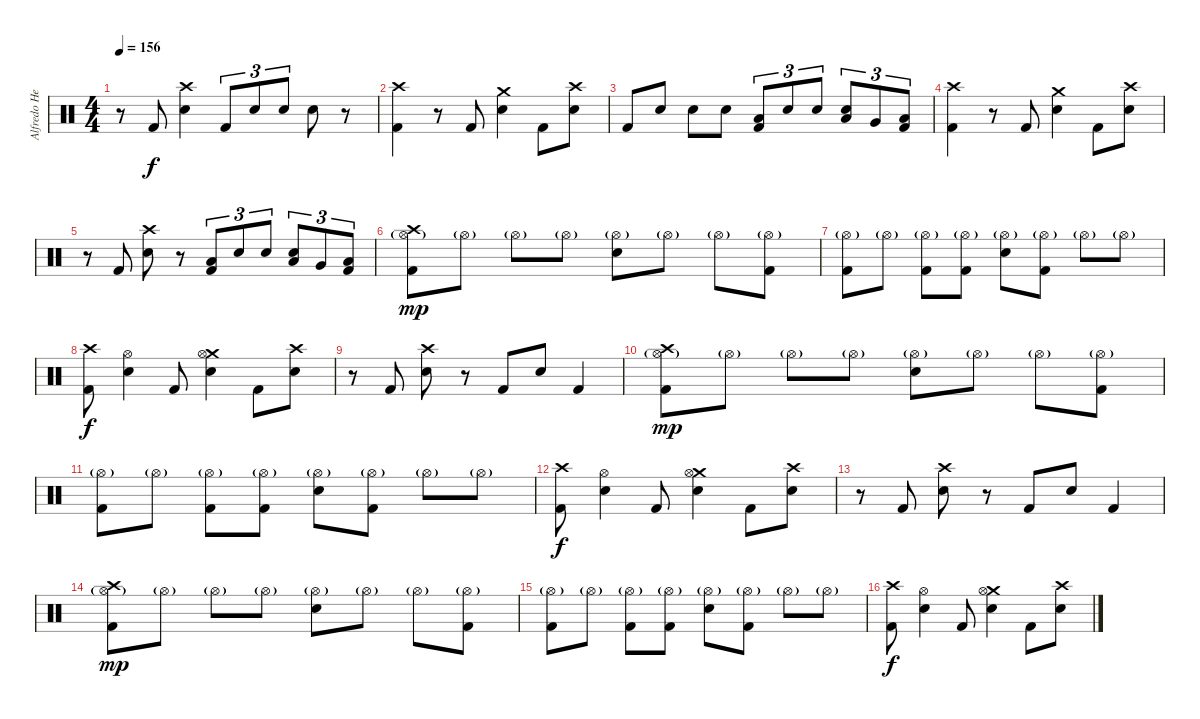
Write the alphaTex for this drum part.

\track ("Alfredo Hernández" "Alfredo He") {instrument percussion}
\staff {score}
\articulation defaults
\ts (4 4)
\tempo 156
\clef neutral
\ks c
r.8{dy f} "Kick (hit) 2".8 ("Electric Snare (hit)" "Crash high (hit)").4 "Kick (hit) 2".8{tu (3 2)} "Electric Snare (hit)".8{tu (3 2)} "Electric Snare (hit)".8{tu (3 2)} "Electric Snare (hit)".8 r.8 |
("Crash high (hit)" "Kick (hit) 2").4 r.8 "Kick (hit) 2".8 ("Electric Snare (hit)" "Crash medium (hit)").4 "Kick (hit) 2".8 ("Electric Snare (hit)" "Crash high (hit)").8 |
"Kick (hit) 2".8 "Electric Snare (hit)".8 "Electric Snare (hit)".8 "Electric Snare (hit)".8 ("Low Floor Tom (hit)" "Kick (hit) 2").8{tu (3 2)} "Electric Snare (hit)".8{tu (3 2)} "Electric Snare (hit)".8{tu (3 2)} ("Electric Snare (hit)" "Low Tom (hit)").8{tu (3 2)} "Very Low Tom (hit)".8{tu (3 2)} ("Low Floor Tom (hit)" "Kick (hit) 2").8{tu (3 2)} |
("Crash high (hit)" "Kick (hit) 2").4 r.8 "Kick (hit) 2".8 ("Electric Snare (hit)" "Crash medium (hit)").4 "Kick (hit) 2".8 ("Electric Snare (hit)" "Crash high (hit)").8 |
r.8 "Kick (hit) 2".8 ("Crash high (hit)" "Electric Snare (hit)").8 r.8 ("Low Floor Tom (hit)" "Kick (hit) 2").8{tu (3 2)} "Electric Snare (hit)".8{tu (3 2)} "Electric Snare (hit)".8{tu (3 2)} ("Electric Snare (hit)" "Low Tom (hit)").8{tu (3 2)} "Very Low Tom (hit)".8{tu (3 2)} ("Low Floor Tom (hit)" "Kick (hit) 2").8{tu (3 2)} |
("Crash high (hit)" "Hi-Hat (open)"{g} "Kick (hit) 2").8{dy mp} "Hi-Hat (open)"{g}.8 "Hi-Hat (open)"{g}.8 "Hi-Hat (open)"{g}.8 ("Electric Snare (hit)" "Hi-Hat (open)"{g}).8 "Hi-Hat (open)"{g}.8 "Hi-Hat (open)"{g}.8 ("Hi-Hat (open)"{g} "Kick (hit) 2").8 |
("Hi-Hat (open)"{g} "Kick (hit) 2").8 "Hi-Hat (open)"{g}.8 ("Hi-Hat (open)"{g} "Kick (hit) 2").8 ("Hi-Hat (open)"{g} "Kick (hit) 2").8 ("Electric Snare (hit)" "Hi-Hat (open)"{g}).8 ("Hi-Hat (open)"{g} "Kick (hit) 2").8 "Hi-Hat (open)"{g}.8 "Hi-Hat (open)"{g}.8 |
("Crash high (hit)" "Kick (hit) 2").8{dy f} ("Electric Snare (hit)" "Hi-Hat (open)").4 "Kick (hit) 2".8 ("Electric Snare (hit)" "Crash medium (hit)" "Hi-Hat (open)").4 "Kick (hit) 2".8 ("Electric Snare (hit)" "Crash high (hit)").8 |
r.8 "Kick (hit) 2".8 ("Crash high (hit)" "Electric Snare (hit)").8 r.8 "Kick (hit) 2".8 "Electric Snare (hit)".8 "Kick (hit) 2".4 |
("Crash high (hit)" "Hi-Hat (open)"{g} "Kick (hit) 2").8{dy mp} "Hi-Hat (open)"{g}.8 "Hi-Hat (open)"{g}.8 "Hi-Hat (open)"{g}.8 ("Electric Snare (hit)" "Hi-Hat (open)"{g}).8 "Hi-Hat (open)"{g}.8 "Hi-Hat (open)"{g}.8 ("Hi-Hat (open)"{g} "Kick (hit) 2").8 |
("Hi-Hat (open)"{g} "Kick (hit) 2").8 "Hi-Hat (open)"{g}.8 ("Hi-Hat (open)"{g} "Kick (hit) 2").8 ("Hi-Hat (open)"{g} "Kick (hit) 2").8 ("Electric Snare (hit)" "Hi-Hat (open)"{g}).8 ("Hi-Hat (open)"{g} "Kick (hit) 2").8 "Hi-Hat (open)"{g}.8 "Hi-Hat (open)"{g}.8 |
("Crash high (hit)" "Kick (hit) 2").8{dy f} ("Electric Snare (hit)" "Hi-Hat (open)").4 "Kick (hit) 2".8 ("Electric Snare (hit)" "Crash medium (hit)" "Hi-Hat (open)").4 "Kick (hit) 2".8 ("Electric Snare (hit)" "Crash high (hit)").8 |
r.8 "Kick (hit) 2".8 ("Crash high (hit)" "Electric Snare (hit)").8 r.8 "Kick (hit) 2".8 "Electric Snare (hit)".8 "Kick (hit) 2".4 |
("Crash high (hit)" "Hi-Hat (open)"{g} "Kick (hit) 2").8{dy mp} "Hi-Hat (open)"{g}.8 "Hi-Hat (open)"{g}.8 "Hi-Hat (open)"{g}.8 ("Electric Snare (hit)" "Hi-Hat (open)"{g}).8 "Hi-Hat (open)"{g}.8 "Hi-Hat (open)"{g}.8 ("Hi-Hat (open)"{g} "Kick (hit) 2").8 |
("Hi-Hat (open)"{g} "Kick (hit) 2").8 "Hi-Hat (open)"{g}.8 ("Hi-Hat (open)"{g} "Kick (hit) 2").8 ("Hi-Hat (open)"{g} "Kick (hit) 2").8 ("Electric Snare (hit)" "Hi-Hat (open)"{g}).8 ("Hi-Hat (open)"{g} "Kick (hit) 2").8 "Hi-Hat (open)"{g}.8 "Hi-Hat (open)"{g}.8 |
("Crash high (hit)" "Kick (hit) 2").8{dy f} ("Electric Snare (hit)" "Hi-Hat (open)").4 "Kick (hit) 2".8 ("Electric Snare (hit)" "Crash medium (hit)" "Hi-Hat (open)").4 "Kick (hit) 2".8 ("Electric Snare (hit)" "Crash high (hit)").8
